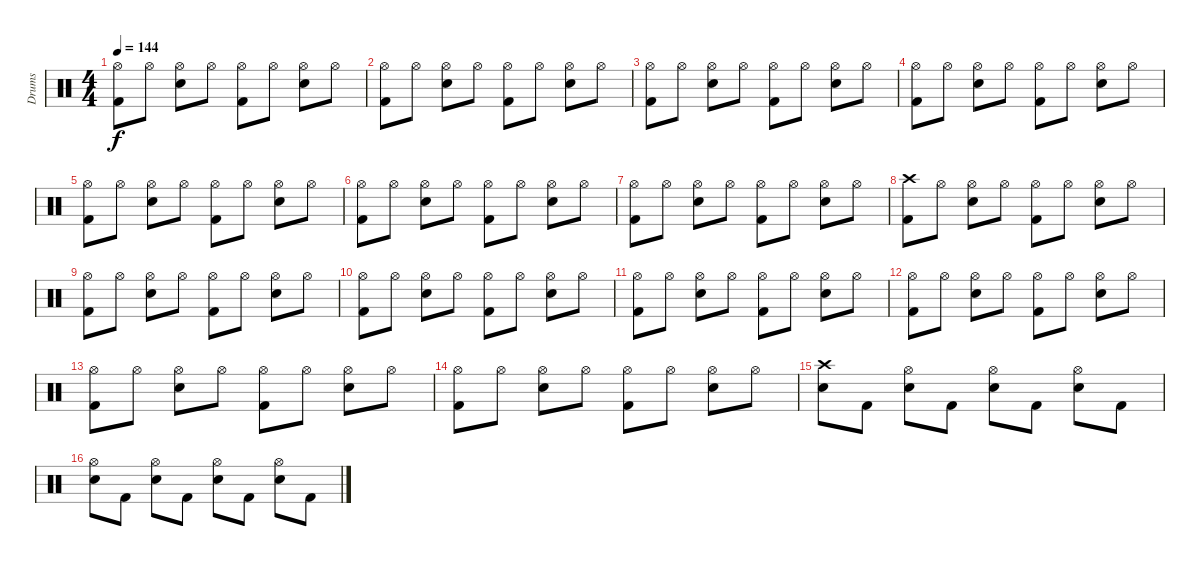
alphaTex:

\track ("Drums" "Drums") {instrument percussion}
\staff {score}
\articulation defaults
\ts (4 4)
\tempo 144
\clef neutral
\ks c
("Hi-Hat (open)" "Kick (hit) 2").8{dy f} "Hi-Hat (open)".8 ("Hi-Hat (open)" "Electric Snare (hit)").8 "Hi-Hat (open)".8 ("Hi-Hat (open)" "Kick (hit) 2").8 "Hi-Hat (open)".8 ("Hi-Hat (open)" "Electric Snare (hit)").8 "Hi-Hat (open)".8 |
("Hi-Hat (open)" "Kick (hit) 2").8 "Hi-Hat (open)".8 ("Hi-Hat (open)" "Electric Snare (hit)").8 "Hi-Hat (open)".8 ("Hi-Hat (open)" "Kick (hit) 2").8 "Hi-Hat (open)".8 ("Hi-Hat (open)" "Electric Snare (hit)").8 "Hi-Hat (open)".8 |
("Hi-Hat (open)" "Kick (hit) 2").8 "Hi-Hat (open)".8 ("Hi-Hat (open)" "Electric Snare (hit)").8 "Hi-Hat (open)".8 ("Hi-Hat (open)" "Kick (hit) 2").8 "Hi-Hat (open)".8 ("Hi-Hat (open)" "Electric Snare (hit)").8 "Hi-Hat (open)".8 |
("Hi-Hat (open)" "Kick (hit) 2").8 "Hi-Hat (open)".8 ("Hi-Hat (open)" "Electric Snare (hit)").8 "Hi-Hat (open)".8 ("Hi-Hat (open)" "Kick (hit) 2").8 "Hi-Hat (open)".8 ("Hi-Hat (open)" "Electric Snare (hit)").8 "Hi-Hat (open)".8 |
("Hi-Hat (open)" "Kick (hit) 2").8 "Hi-Hat (open)".8 ("Hi-Hat (open)" "Electric Snare (hit)").8 "Hi-Hat (open)".8 ("Hi-Hat (open)" "Kick (hit) 2").8 "Hi-Hat (open)".8 ("Hi-Hat (open)" "Electric Snare (hit)").8 "Hi-Hat (open)".8 |
("Hi-Hat (open)" "Kick (hit) 2").8 "Hi-Hat (open)".8 ("Hi-Hat (open)" "Electric Snare (hit)").8 "Hi-Hat (open)".8 ("Hi-Hat (open)" "Kick (hit) 2").8 "Hi-Hat (open)".8 ("Hi-Hat (open)" "Electric Snare (hit)").8 "Hi-Hat (open)".8 |
("Hi-Hat (open)" "Kick (hit) 2").8 "Hi-Hat (open)".8 ("Hi-Hat (open)" "Electric Snare (hit)").8 "Hi-Hat (open)".8 ("Hi-Hat (open)" "Kick (hit) 2").8 "Hi-Hat (open)".8 ("Hi-Hat (open)" "Electric Snare (hit)").8 "Hi-Hat (open)".8 |
("Crash high (hit)" "Kick (hit) 2").8 "Hi-Hat (open)".8 ("Hi-Hat (open)" "Electric Snare (hit)").8 "Hi-Hat (open)".8 ("Hi-Hat (open)" "Kick (hit) 2").8 "Hi-Hat (open)".8 ("Hi-Hat (open)" "Electric Snare (hit)").8 "Hi-Hat (open)".8 |
("Hi-Hat (open)" "Kick (hit) 2").8 "Hi-Hat (open)".8 ("Hi-Hat (open)" "Electric Snare (hit)").8 "Hi-Hat (open)".8 ("Hi-Hat (open)" "Kick (hit) 2").8 "Hi-Hat (open)".8 ("Hi-Hat (open)" "Electric Snare (hit)").8 "Hi-Hat (open)".8 |
("Hi-Hat (open)" "Kick (hit) 2").8 "Hi-Hat (open)".8 ("Hi-Hat (open)" "Electric Snare (hit)").8 "Hi-Hat (open)".8 ("Hi-Hat (open)" "Kick (hit) 2").8 "Hi-Hat (open)".8 ("Hi-Hat (open)" "Electric Snare (hit)").8 "Hi-Hat (open)".8 |
("Hi-Hat (open)" "Kick (hit) 2").8 "Hi-Hat (open)".8 ("Hi-Hat (open)" "Electric Snare (hit)").8 "Hi-Hat (open)".8 ("Hi-Hat (open)" "Kick (hit) 2").8 "Hi-Hat (open)".8 ("Hi-Hat (open)" "Electric Snare (hit)").8 "Hi-Hat (open)".8 |
("Hi-Hat (open)" "Kick (hit) 2").8 "Hi-Hat (open)".8 ("Hi-Hat (open)" "Electric Snare (hit)").8 "Hi-Hat (open)".8 ("Hi-Hat (open)" "Kick (hit) 2").8 "Hi-Hat (open)".8 ("Hi-Hat (open)" "Electric Snare (hit)").8 "Hi-Hat (open)".8 |
("Hi-Hat (open)" "Kick (hit) 2").8 "Hi-Hat (open)".8 ("Hi-Hat (open)" "Electric Snare (hit)").8 "Hi-Hat (open)".8 ("Hi-Hat (open)" "Kick (hit) 2").8 "Hi-Hat (open)".8 ("Hi-Hat (open)" "Electric Snare (hit)").8 "Hi-Hat (open)".8 |
("Hi-Hat (open)" "Kick (hit) 2").8 "Hi-Hat (open)".8 ("Hi-Hat (open)" "Electric Snare (hit)").8 "Hi-Hat (open)".8 ("Hi-Hat (open)" "Kick (hit) 2").8 "Hi-Hat (open)".8 ("Hi-Hat (open)" "Electric Snare (hit)").8 "Hi-Hat (open)".8 |
("Crash high (hit)" "Electric Snare (hit)").8 "Kick (hit) 2".8 ("Hi-Hat (open)" "Electric Snare (hit)").8 "Kick (hit) 2".8 ("Hi-Hat (open)" "Electric Snare (hit)").8 "Kick (hit) 2".8 ("Hi-Hat (open)" "Electric Snare (hit)").8 "Kick (hit) 2".8 |
("Hi-Hat (open)" "Electric Snare (hit)").8 "Kick (hit) 2".8 ("Hi-Hat (open)" "Electric Snare (hit)").8 "Kick (hit) 2".8 ("Hi-Hat (open)" "Electric Snare (hit)").8 "Kick (hit) 2".8 ("Hi-Hat (open)" "Electric Snare (hit)").8 "Kick (hit) 2".8
